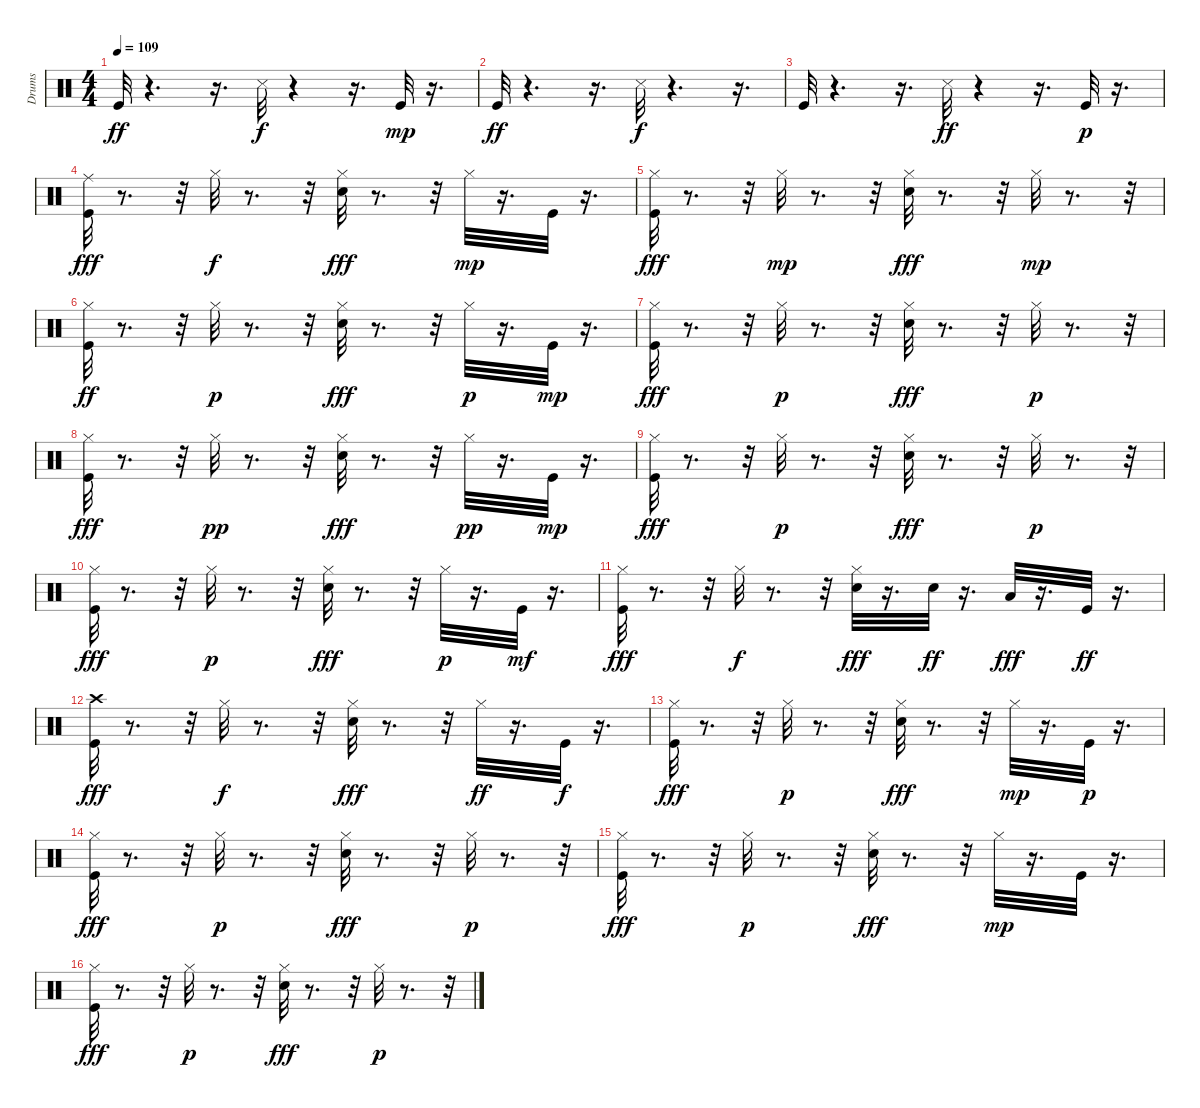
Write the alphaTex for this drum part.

\track ("Drums" "Drums") {instrument percussion}
\staff {score}
\articulation defaults
\ts (4 4)
\tempo 109
\clef neutral
\ks c "Kick (hit)".32{dy ff}
r.4{d} r.16{d} "Snare (side stick) 3".32{dy f} r.4 r.16{d} "Kick (hit)".32{dy mp} r.16{d} |
"Kick (hit)".32{dy ff} r.4{d} r.16{d} "Snare (side stick) 3".32{dy f} r.4{d} r.16{d} |
"Kick (hit)".32 r.4{d} r.16{d} "Snare (side stick) 3".32{dy ff} r.4 r.16{d} "Kick (hit)".32{dy p} r.16{d} |
("Ride (middle)" "Kick (hit)").32{dy fff} r.8{d} r.32 "Hi-Hat (closed)".32{dy f} r.8{d} r.32 ("Hi-Hat (closed)" "Snare (hit) 2").32{dy fff} r.8{d} r.32 "Hi-Hat (closed)".32{dy mp} r.16{d} "Kick (hit)".32 r.16{d} |
("Hi-Hat (closed)" "Kick (hit)").32{dy fff} r.8{d} r.32 "Hi-Hat (closed)".32{dy mp} r.8{d} r.32 ("Hi-Hat (closed)" "Snare (hit) 2").32{dy fff} r.8{d} r.32 "Hi-Hat (closed)".32{dy mp} r.8{d} r.32 |
("Hi-Hat (closed)" "Kick (hit)").32{dy ff} r.8{d} r.32 "Hi-Hat (closed)".32{dy p} r.8{d} r.32 ("Hi-Hat (closed)" "Snare (hit) 2").32{dy fff} r.8{d} r.32 "Hi-Hat (closed)".32{dy p} r.16{d} "Kick (hit)".32{dy mp} r.16{d} |
("Hi-Hat (closed)" "Kick (hit)").32{dy fff} r.8{d} r.32 "Hi-Hat (closed)".32{dy p} r.8{d} r.32 ("Hi-Hat (closed)" "Snare (hit) 2").32{dy fff} r.8{d} r.32 "Hi-Hat (closed)".32{dy p} r.8{d} r.32 |
("Hi-Hat (closed)" "Kick (hit)").32{dy fff} r.8{d} r.32 "Hi-Hat (closed)".32{dy pp} r.8{d} r.32 ("Hi-Hat (closed)" "Snare (hit) 2").32{dy fff} r.8{d} r.32 "Hi-Hat (closed)".32{dy pp} r.16{d} "Kick (hit)".32{dy mp} r.16{d} |
("Hi-Hat (closed)" "Kick (hit)").32{dy fff} r.8{d} r.32 "Hi-Hat (closed)".32{dy p} r.8{d} r.32 ("Hi-Hat (closed)" "Snare (hit) 2").32{dy fff} r.8{d} r.32 "Hi-Hat (closed)".32{dy p} r.8{d} r.32 |
("Hi-Hat (closed)" "Kick (hit)").32{dy fff} r.8{d} r.32 "Hi-Hat (closed)".32{dy p} r.8{d} r.32 ("Hi-Hat (closed)" "Snare (hit) 2").32{dy fff} r.8{d} r.32 "Hi-Hat (closed)".32{dy p} r.16{d} "Kick (hit)".32{dy mf} r.16{d} |
("Hi-Hat (closed)" "Kick (hit)").32{dy fff} r.8{d} r.32 "Hi-Hat (closed)".32{dy f} r.8{d} r.32 ("Hi-Hat (closed)" "Snare (hit) 2").32{dy fff} r.16{d} "Snare (hit) 2".32{dy ff} r.16{d} "Low Floor Tom (hit)".32{dy fff} r.16{d} "Kick (hit)".32{dy ff} r.16{d} |
("Crash high (hit)" "Kick (hit)").32{dy fff} r.8{d} r.32 "Hi-Hat (closed)".32{dy f} r.8{d} r.32 ("Hi-Hat (closed)" "Snare (hit) 2").32{dy fff} r.8{d} r.32 "Hi-Hat (closed)".32{dy ff} r.16{d} "Kick (hit)".32{dy f} r.16{d} |
("Hi-Hat (closed)" "Kick (hit)").32{dy fff} r.8{d} r.32 "Hi-Hat (closed)".32{dy p} r.8{d} r.32 ("Hi-Hat (closed)" "Snare (hit) 2").32{dy fff} r.8{d} r.32 "Hi-Hat (closed)".32{dy mp} r.16{d} "Kick (hit)".32{dy p} r.16{d} |
("Hi-Hat (closed)" "Kick (hit)").32{dy fff} r.8{d} r.32 "Hi-Hat (closed)".32{dy p} r.8{d} r.32 ("Hi-Hat (closed)" "Snare (hit) 2").32{dy fff} r.8{d} r.32 "Hi-Hat (closed)".32{dy p} r.8{d} r.32 |
("Hi-Hat (closed)" "Kick (hit)").32{dy fff} r.8{d} r.32 "Hi-Hat (closed)".32{dy p} r.8{d} r.32 ("Hi-Hat (closed)" "Snare (hit) 2").32{dy fff} r.8{d} r.32 "Hi-Hat (closed)".32{dy mp} r.16{d} "Kick (hit)".32 r.16{d} |
("Hi-Hat (closed)" "Kick (hit)").32{dy fff} r.8{d} r.32 "Hi-Hat (closed)".32{dy p} r.8{d} r.32 ("Hi-Hat (closed)" "Snare (hit) 2").32{dy fff} r.8{d} r.32 "Hi-Hat (closed)".32{dy p} r.8{d} r.32
